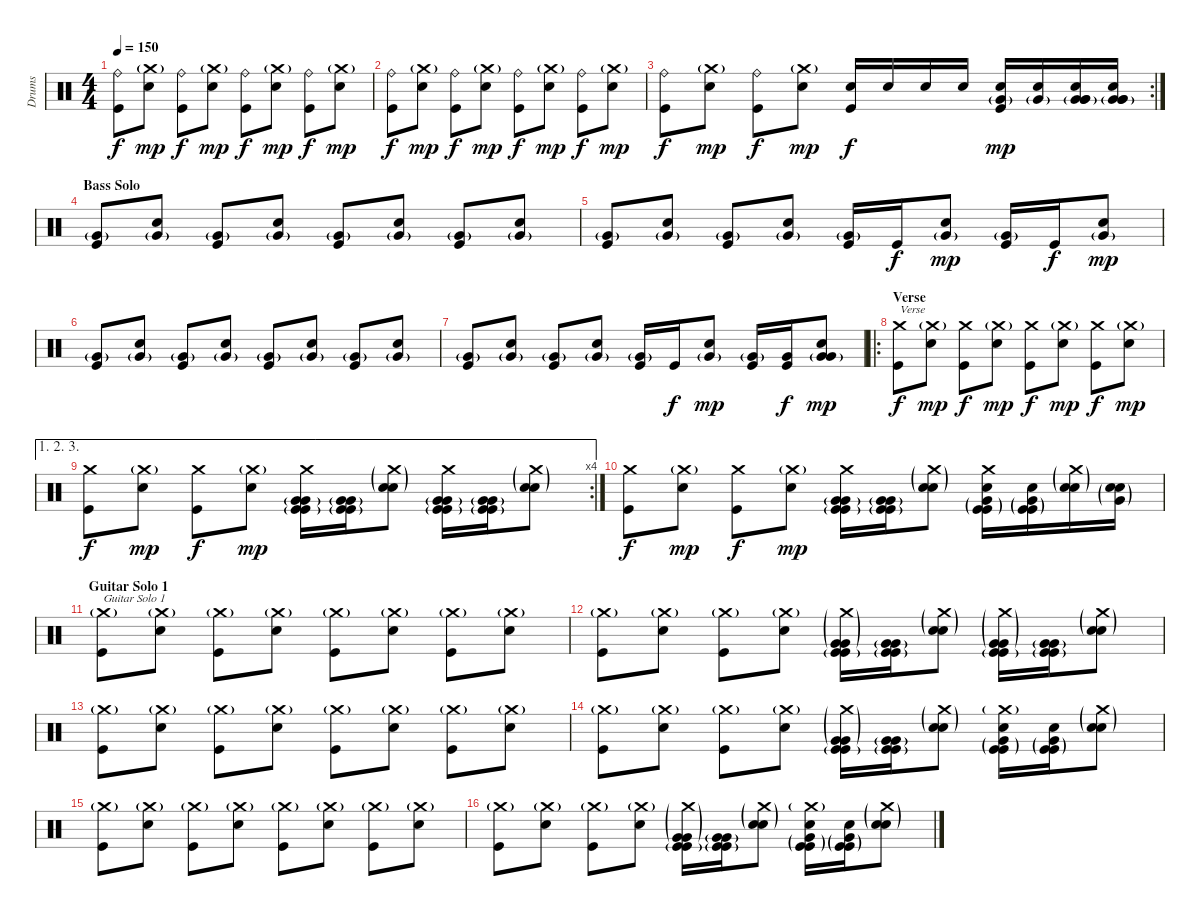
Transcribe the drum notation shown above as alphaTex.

\track ("Drums" "Drums") {instrument percussion}
\staff {score}
\articulation defaults
\ts (4 4)
\tempo 150
\clef neutral
\ks c
("Ride (bell)" "Kick (hit)").8{dy f} ("Crash medium (hit)"{g} "Snare (hit) 2").8{dy mp} ("Ride (bell)" "Kick (hit)").8{dy f} ("Crash medium (hit)"{g} "Snare (hit) 2").8{dy mp} ("Ride (bell)" "Kick (hit)").8{dy f} ("Crash medium (hit)"{g} "Snare (hit) 2").8{dy mp} ("Ride (bell)" "Kick (hit)").8{dy f} ("Crash medium (hit)"{g} "Snare (hit) 2").8{dy mp} |
("Ride (bell)" "Kick (hit)").8{dy f} ("Crash medium (hit)"{g} "Snare (hit) 2").8{dy mp} ("Ride (bell)" "Kick (hit)").8{dy f} ("Crash medium (hit)"{g} "Snare (hit) 2").8{dy mp} ("Ride (bell)" "Kick (hit)").8{dy f} ("Crash medium (hit)"{g} "Snare (hit) 2").8{dy mp} ("Ride (bell)" "Kick (hit)").8{dy f} ("Crash medium (hit)"{g} "Snare (hit) 2").8{dy mp} |
\rc 2
("Ride (bell)" "Kick (hit)").8{dy f} ("Crash medium (hit)"{g} "Snare (hit) 2").8{dy mp} ("Ride (bell)" "Kick (hit)").8{dy f} ("Crash medium (hit)"{g} "Snare (hit) 2").8{dy mp} ("Snare (hit) 2" "Kick (hit)").16{dy f} "Snare (hit) 2".16 "Snare (hit) 2".16 "Snare (hit) 2".16 ("Snare (hit) 2" "Very Low Tom (hit)"{g} "Kick (hit)").16{dy mp} ("Snare (hit) 2" "Very Low Tom (hit)"{g}).16 ("Very Low Tom (hit)" "Very Low Tom (hit)" "Snare (hit) 2" "Very Low Tom (hit)"{g}).16 ("Very Low Tom (hit)" "Very Low Tom (hit)" "Snare (hit) 2" "Very Low Tom (hit)"{g}).16 |
\section ("" "Bass Solo")
("Very Low Tom (hit)"{g} "Kick (hit)").8 ("Very Low Tom (hit)"{g} "Snare (hit) 2").8 ("Very Low Tom (hit)"{g} "Kick (hit)").8 ("Very Low Tom (hit)"{g} "Snare (hit) 2").8 ("Very Low Tom (hit)"{g} "Kick (hit)").8 ("Very Low Tom (hit)"{g} "Snare (hit) 2").8 ("Very Low Tom (hit)"{g} "Kick (hit)").8 ("Very Low Tom (hit)"{g} "Snare (hit) 2").8 |
("Very Low Tom (hit)"{g} "Kick (hit)").8 ("Very Low Tom (hit)"{g} "Snare (hit) 2").8 ("Very Low Tom (hit)"{g} "Kick (hit)").8 ("Very Low Tom (hit)"{g} "Snare (hit) 2").8 ("Very Low Tom (hit)"{g} "Kick (hit)").16 "Kick (hit)".16{dy f} ("Very Low Tom (hit)"{g} "Snare (hit) 2").8{dy mp} ("Very Low Tom (hit)"{g} "Kick (hit)").16 "Kick (hit)".16{dy f} ("Very Low Tom (hit)"{g} "Snare (hit) 2").8{dy mp} |
("Very Low Tom (hit)"{g} "Kick (hit)").8 ("Very Low Tom (hit)"{g} "Snare (hit) 2").8 ("Very Low Tom (hit)"{g} "Kick (hit)").8 ("Very Low Tom (hit)"{g} "Snare (hit) 2").8 ("Very Low Tom (hit)"{g} "Kick (hit)").8 ("Very Low Tom (hit)"{g} "Snare (hit) 2").8 ("Very Low Tom (hit)"{g} "Kick (hit)").8 ("Very Low Tom (hit)"{g} "Snare (hit) 2").8 |
("Very Low Tom (hit)"{g} "Kick (hit)").8 ("Very Low Tom (hit)"{g} "Snare (hit) 2").8 ("Very Low Tom (hit)"{g} "Kick (hit)").8 ("Very Low Tom (hit)"{g} "Snare (hit) 2").8 ("Very Low Tom (hit)"{g} "Kick (hit)").16 "Kick (hit)".16{dy f} ("Very Low Tom (hit)"{g} "Snare (hit) 2").8{dy mp} ("Very Low Tom (hit)"{g} "Kick (hit)").16 ("Very Low Tom (hit)" "Kick (hit)").16{dy f} ("Very Low Tom (hit)"{g} "Very Low Tom (hit)" "Snare (hit) 2").8{dy mp} |
\ro
\section ("" "Verse")
("Crash medium (hit)" "Kick (hit)").8{txt "Verse" dy f} ("Crash medium (hit)"{g} "Snare (hit) 2").8{dy mp} ("Crash medium (hit)" "Kick (hit)").8{dy f} ("Crash medium (hit)"{g} "Snare (hit) 2").8{dy mp} ("Crash medium (hit)" "Kick (hit)").8{dy f} ("Crash medium (hit)"{g} "Snare (hit) 2").8{dy mp} ("Crash medium (hit)" "Kick (hit)").8{dy f} ("Crash medium (hit)"{g} "Snare (hit) 2").8{dy mp} |
\ae (1 2 3)
\rc 4
("Crash medium (hit)" "Kick (hit)").8{dy f} ("Crash medium (hit)"{g} "Snare (hit) 2").8{dy mp} ("Crash medium (hit)" "Kick (hit)").8{dy f} ("Crash medium (hit)"{g} "Snare (hit) 2").8{dy mp} ("Crash medium (hit)" "Very Low Tom (hit)"{g} "Very Low Tom (hit)" "Kick (hit)"{g} "Kick (hit)").16 ("Very Low Tom (hit)"{g} "Very Low Tom (hit)" "Kick (hit)"{g} "Kick (hit)").16 ("Crash medium (hit)"{g} "Snare (hit) 2"{g} "Snare (hit) 2").8 ("Crash medium (hit)" "Very Low Tom (hit)"{g} "Very Low Tom (hit)" "Kick (hit)"{g} "Kick (hit)").16 ("Very Low Tom (hit)"{g} "Very Low Tom (hit)" "Kick (hit)"{g} "Kick (hit)").16 ("Crash medium (hit)"{g} "Snare (hit) 2"{g} "Snare (hit) 2").8 |
("Crash medium (hit)" "Kick (hit)").8{dy f} ("Crash medium (hit)"{g} "Snare (hit) 2").8{dy mp} ("Crash medium (hit)" "Kick (hit)").8{dy f} ("Crash medium (hit)"{g} "Snare (hit) 2").8{dy mp} ("Crash medium (hit)" "Very Low Tom (hit)"{g} "Very Low Tom (hit)" "Kick (hit)"{g} "Kick (hit)").16 ("Very Low Tom (hit)"{g} "Very Low Tom (hit)" "Kick (hit)"{g} "Kick (hit)").16 ("Crash medium (hit)"{g} "Snare (hit) 2"{g} "Snare (hit) 2").8 ("Crash medium (hit)" "Very Low Tom (hit)"{g} "Snare (hit) 2" "Kick (hit)"{g} "Kick (hit)").16 ("Very Low Tom (hit)"{g} "Snare (hit) 2" "Kick (hit)"{g} "Kick (hit)").16 ("Crash medium (hit)"{g} "Snare (hit) 2"{g} "Snare (hit) 2").16 ("Very Low Tom (hit)"{g} "Snare (hit) 2" "Snare (hit) 2"{g}).16 |
\section ("" "Guitar Solo 1")
("Crash medium (hit)"{g} "Kick (hit)").8{txt "Guitar Solo 1"} ("Crash medium (hit)"{g} "Snare (hit) 2").8 ("Crash medium (hit)"{g} "Kick (hit)").8 ("Crash medium (hit)"{g} "Snare (hit) 2").8 ("Crash medium (hit)"{g} "Kick (hit)").8 ("Crash medium (hit)"{g} "Snare (hit) 2").8 ("Crash medium (hit)"{g} "Kick (hit)").8 ("Crash medium (hit)"{g} "Snare (hit) 2").8 |
("Crash medium (hit)"{g} "Kick (hit)").8 ("Crash medium (hit)"{g} "Snare (hit) 2").8 ("Crash medium (hit)"{g} "Kick (hit)").8 ("Crash medium (hit)"{g} "Snare (hit) 2").8 ("Crash medium (hit)"{g} "Very Low Tom (hit)"{g} "Very Low Tom (hit)" "Kick (hit)"{g} "Kick (hit)").16 ("Very Low Tom (hit)"{g} "Very Low Tom (hit)" "Kick (hit)"{g} "Kick (hit)").16 ("Crash medium (hit)"{g} "Snare (hit) 2"{g} "Snare (hit) 2").8 ("Crash medium (hit)"{g} "Very Low Tom (hit)"{g} "Very Low Tom (hit)" "Kick (hit)"{g} "Kick (hit)").16 ("Very Low Tom (hit)"{g} "Very Low Tom (hit)" "Kick (hit)"{g} "Kick (hit)").16 ("Crash medium (hit)"{g} "Snare (hit) 2"{g} "Snare (hit) 2").8 |
("Crash medium (hit)"{g} "Kick (hit)").8 ("Crash medium (hit)"{g} "Snare (hit) 2").8 ("Crash medium (hit)"{g} "Kick (hit)").8 ("Crash medium (hit)"{g} "Snare (hit) 2").8 ("Crash medium (hit)"{g} "Kick (hit)").8 ("Crash medium (hit)"{g} "Snare (hit) 2").8 ("Crash medium (hit)"{g} "Kick (hit)").8 ("Crash medium (hit)"{g} "Snare (hit) 2").8 |
("Crash medium (hit)"{g} "Kick (hit)").8 ("Crash medium (hit)"{g} "Snare (hit) 2").8 ("Crash medium (hit)"{g} "Kick (hit)").8 ("Crash medium (hit)"{g} "Snare (hit) 2").8 ("Crash medium (hit)"{g} "Very Low Tom (hit)"{g} "Very Low Tom (hit)" "Kick (hit)"{g} "Kick (hit)").16 ("Very Low Tom (hit)"{g} "Very Low Tom (hit)" "Kick (hit)"{g} "Kick (hit)").16 ("Crash medium (hit)"{g} "Snare (hit) 2"{g} "Snare (hit) 2").8 ("Snare (hit) 2" "Crash medium (hit)"{g} "Very Low Tom (hit)"{g} "Kick (hit)"{g} "Kick (hit)").16 ("Snare (hit) 2" "Very Low Tom (hit)"{g} "Kick (hit)"{g} "Kick (hit)").16 ("Crash medium (hit)"{g} "Snare (hit) 2"{g} "Snare (hit) 2").8 |
("Crash medium (hit)"{g} "Kick (hit)").8 ("Crash medium (hit)"{g} "Snare (hit) 2").8 ("Crash medium (hit)"{g} "Kick (hit)").8 ("Crash medium (hit)"{g} "Snare (hit) 2").8 ("Crash medium (hit)"{g} "Kick (hit)").8 ("Crash medium (hit)"{g} "Snare (hit) 2").8 ("Crash medium (hit)"{g} "Kick (hit)").8 ("Crash medium (hit)"{g} "Snare (hit) 2").8 |
("Crash medium (hit)"{g} "Kick (hit)").8 ("Crash medium (hit)"{g} "Snare (hit) 2").8 ("Crash medium (hit)"{g} "Kick (hit)").8 ("Crash medium (hit)"{g} "Snare (hit) 2").8 ("Crash medium (hit)"{g} "Very Low Tom (hit)"{g} "Very Low Tom (hit)" "Kick (hit)"{g} "Kick (hit)").16 ("Very Low Tom (hit)"{g} "Very Low Tom (hit)" "Kick (hit)"{g} "Kick (hit)").16 ("Crash medium (hit)"{g} "Snare (hit) 2"{g} "Snare (hit) 2").8 ("Snare (hit) 2" "Crash medium (hit)"{g} "Very Low Tom (hit)"{g} "Kick (hit)"{g} "Kick (hit)").16 ("Snare (hit) 2" "Very Low Tom (hit)"{g} "Kick (hit)"{g} "Kick (hit)").16 ("Crash medium (hit)"{g} "Snare (hit) 2"{g} "Snare (hit) 2").8
